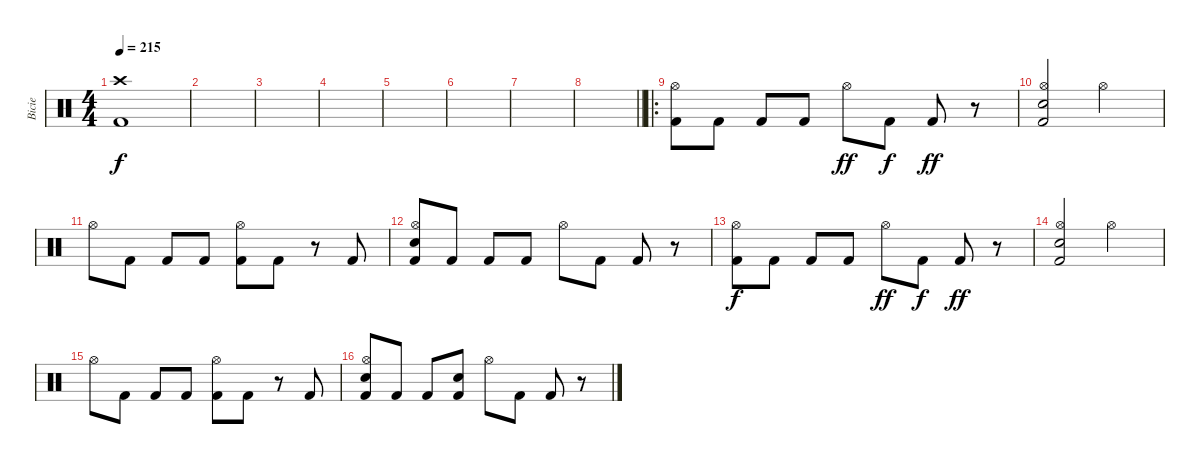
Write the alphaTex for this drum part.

\track ("Bicie" "Bicie") {instrument percussion}
\staff {score}
\articulation defaults
\ts (4 4)
\tempo 215
\clef neutral
\ks c
("Crash high (hit)" "Kick (hit) 2").1{dy f} |
|
|
|
|
|
|
\barLineRight lightlight
|
\ro
("Hi-Hat (open)" "Kick (hit) 2").8 "Kick (hit) 2".8 "Kick (hit) 2".8 "Kick (hit) 2".8 "Hi-Hat (open)".8{dy ff} "Kick (hit) 2".8{dy f} "Kick (hit) 2".8{dy ff} r.8 |
("Hi-Hat (open)" "Electric Snare (hit)" "Kick (hit) 2").2 "Hi-Hat (open)".2 |
"Hi-Hat (open)".8 "Kick (hit) 2".8 "Kick (hit) 2".8 "Kick (hit) 2".8 ("Hi-Hat (open)" "Kick (hit) 2").8 "Kick (hit) 2".8 r.8 "Kick (hit) 2".8 |
("Hi-Hat (open)" "Electric Snare (hit)" "Kick (hit) 2").8 "Kick (hit) 2".8 "Kick (hit) 2".8 "Kick (hit) 2".8 "Hi-Hat (open)".8 "Kick (hit) 2".8 "Kick (hit) 2".8 r.8 |
("Hi-Hat (open)" "Kick (hit) 2").8{dy f} "Kick (hit) 2".8 "Kick (hit) 2".8 "Kick (hit) 2".8 "Hi-Hat (open)".8{dy ff} "Kick (hit) 2".8{dy f} "Kick (hit) 2".8{dy ff} r.8 |
("Hi-Hat (open)" "Electric Snare (hit)" "Kick (hit) 2").2 "Hi-Hat (open)".2 |
"Hi-Hat (open)".8 "Kick (hit) 2".8 "Kick (hit) 2".8 "Kick (hit) 2".8 ("Hi-Hat (open)" "Kick (hit) 2").8 "Kick (hit) 2".8 r.8 "Kick (hit) 2".8 |
("Hi-Hat (open)" "Electric Snare (hit)" "Kick (hit) 2").8 "Kick (hit) 2".8 "Kick (hit) 2".8 ("Electric Snare (hit)" "Kick (hit) 2").8 "Hi-Hat (open)".8 "Kick (hit) 2".8 "Kick (hit) 2".8 r.8
